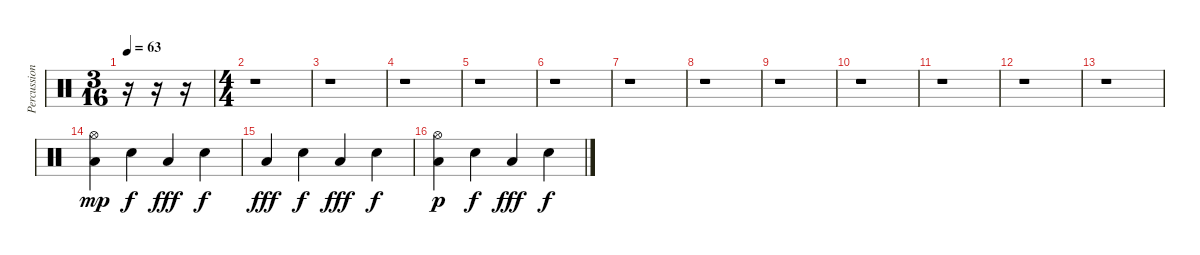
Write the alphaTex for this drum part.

\track ("Percussion" "Percussion") {instrument percussion}
\staff {score}
\articulation defaults
\ts (3 16)
\tempo 63
\clef neutral
\ks c
r.16{dy mp} r.16 r.16 |
\ts (4 4)
r.1 |
r.1 |
r.1 |
r.1 |
r.1 |
r.1 |
r.1 |
r.1 |
r.1 |
r.1 |
r.1 |
r.1 |
("Low Floor Tom (hit)" "Hi-Hat (open)").4 "Electric Snare (hit)".4{dy f} "Low Floor Tom (hit)".4{dy fff} "Electric Snare (hit)".4{dy f} |
"Low Floor Tom (hit)".4{dy fff} "Electric Snare (hit)".4{dy f} "Low Floor Tom (hit)".4{dy fff} "Electric Snare (hit)".4{dy f} |
("Low Floor Tom (hit)" "Hi-Hat (open)").4{dy p} "Electric Snare (hit)".4{dy f} "Low Floor Tom (hit)".4{dy fff} "Electric Snare (hit)".4{dy f}
